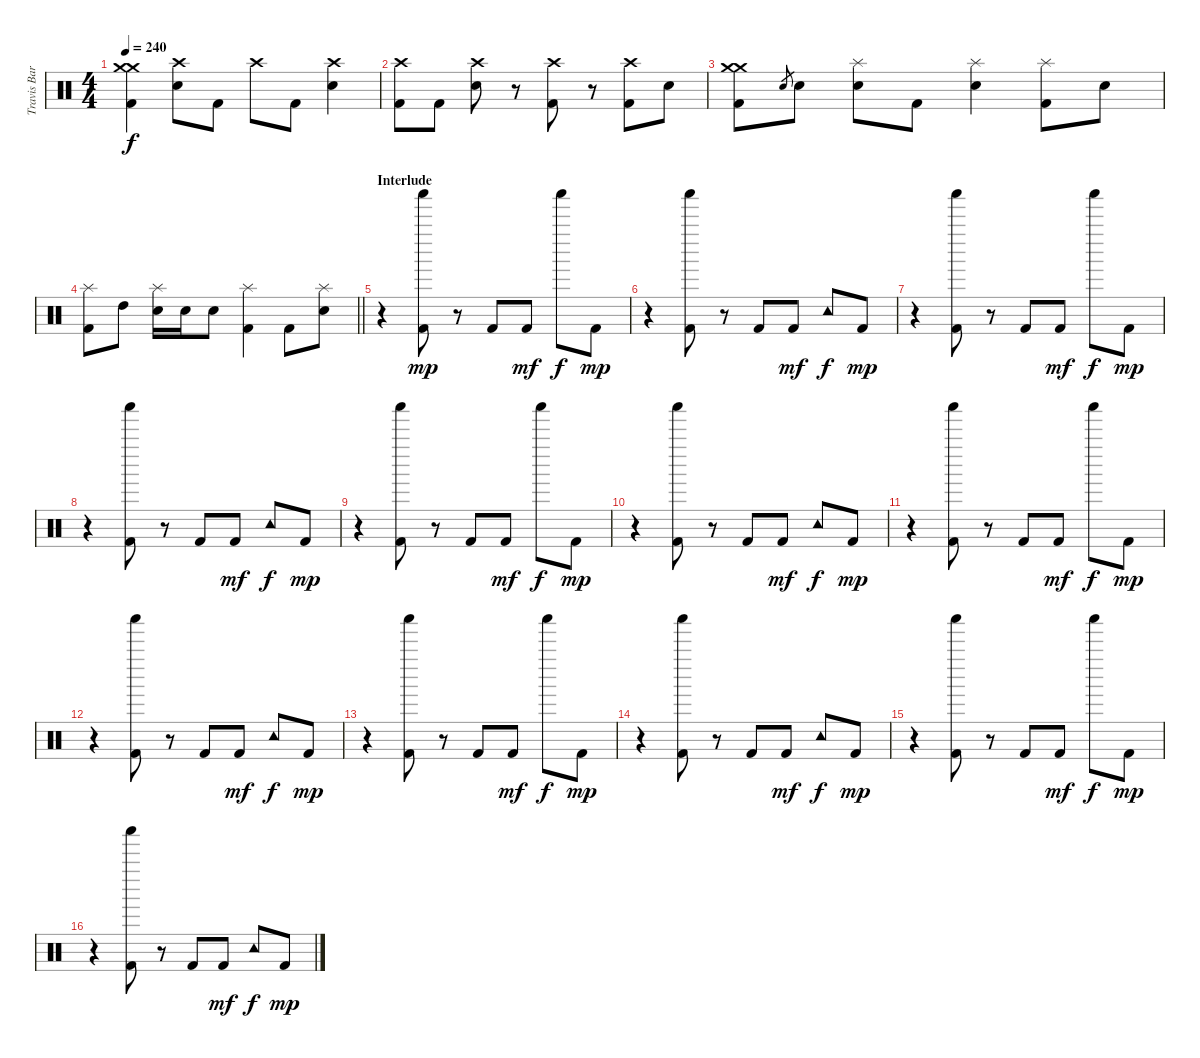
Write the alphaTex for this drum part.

\track ("Travis Barker - Drums" "Travis Bar") {instrument percussion}
\staff {score}
\articulation defaults
\ts (4 4)
\tempo 240
\clef neutral
\ks c
("Crash medium (hit)" "Crash medium (hit)" "Kick (hit) 2").4{dy f} ("Crash high (hit)" "Electric Snare (hit)").8 "Kick (hit) 2".8 "Crash high (hit)".8 "Kick (hit) 2".8 ("Crash high (hit)" "Electric Snare (hit)").4 |
("Crash high (hit)" "Kick (hit) 2").8 "Kick (hit) 2".8 ("Crash high (hit)" "Electric Snare (hit)").8 r.8 ("Crash high (hit)" "Kick (hit) 2").8 r.8 ("Crash high (hit)" "Kick (hit) 2").8 "Electric Snare (hit)".8 |
("Crash medium (hit)" "Crash medium (hit)" "Kick (hit) 2").8 "Electric Snare (hit)".8{gr} "Electric Snare (hit)".8 ("Splash (hit)" "Electric Snare (hit)").8 "Kick (hit) 2".8 ("Splash (hit)" "Electric Snare (hit)").4 ("Splash (hit)" "Kick (hit) 2").8 "Electric Snare (hit)".8 |
\barLineRight lightlight
("Splash (hit)" "Kick (hit) 2").8 "High Tom (hit)".8 ("Splash (hit)" "Electric Snare (hit)").16 "Electric Snare (hit)".16 "Electric Snare (hit)".8 ("Splash (hit)" "Kick (hit) 2").4 "Kick (hit) 2".8 ("Splash (hit)" "Electric Snare (hit)").8 |
\section ("" "Interlude")
r.4 ("Shaker (hit)" "Kick (hit) 2").8{dy mp} r.8 "Kick (hit) 2".8 "Kick (hit) 2".8{dy mf} "Shaker (hit)".8{dy f} "Kick (hit) 2".8{dy mp} |
r.4 ("Shaker (hit)" "Kick (hit) 2").8 r.8 "Kick (hit) 2".8 "Kick (hit) 2".8{dy mf} "Tambourine (hit)".8{dy f} "Kick (hit) 2".8{dy mp} |
r.4 ("Shaker (hit)" "Kick (hit) 2").8 r.8 "Kick (hit) 2".8 "Kick (hit) 2".8{dy mf} "Shaker (hit)".8{dy f} "Kick (hit) 2".8{dy mp} |
r.4 ("Shaker (hit)" "Kick (hit) 2").8 r.8 "Kick (hit) 2".8 "Kick (hit) 2".8{dy mf} "Tambourine (hit)".8{dy f} "Kick (hit) 2".8{dy mp} |
r.4 ("Shaker (hit)" "Kick (hit) 2").8 r.8 "Kick (hit) 2".8 "Kick (hit) 2".8{dy mf} "Shaker (hit)".8{dy f} "Kick (hit) 2".8{dy mp} |
r.4 ("Shaker (hit)" "Kick (hit) 2").8 r.8 "Kick (hit) 2".8 "Kick (hit) 2".8{dy mf} "Tambourine (hit)".8{dy f} "Kick (hit) 2".8{dy mp} |
r.4 ("Shaker (hit)" "Kick (hit) 2").8 r.8 "Kick (hit) 2".8 "Kick (hit) 2".8{dy mf} "Shaker (hit)".8{dy f} "Kick (hit) 2".8{dy mp} |
r.4 ("Shaker (hit)" "Kick (hit) 2").8 r.8 "Kick (hit) 2".8 "Kick (hit) 2".8{dy mf} "Tambourine (hit)".8{dy f} "Kick (hit) 2".8{dy mp} |
r.4 ("Shaker (hit)" "Kick (hit) 2").8 r.8 "Kick (hit) 2".8 "Kick (hit) 2".8{dy mf} "Shaker (hit)".8{dy f} "Kick (hit) 2".8{dy mp} |
r.4 ("Shaker (hit)" "Kick (hit) 2").8 r.8 "Kick (hit) 2".8 "Kick (hit) 2".8{dy mf} "Tambourine (hit)".8{dy f} "Kick (hit) 2".8{dy mp} |
r.4 ("Shaker (hit)" "Kick (hit) 2").8 r.8 "Kick (hit) 2".8 "Kick (hit) 2".8{dy mf} "Shaker (hit)".8{dy f} "Kick (hit) 2".8{dy mp} |
r.4 ("Shaker (hit)" "Kick (hit) 2").8 r.8 "Kick (hit) 2".8 "Kick (hit) 2".8{dy mf} "Tambourine (hit)".8{dy f} "Kick (hit) 2".8{dy mp}
